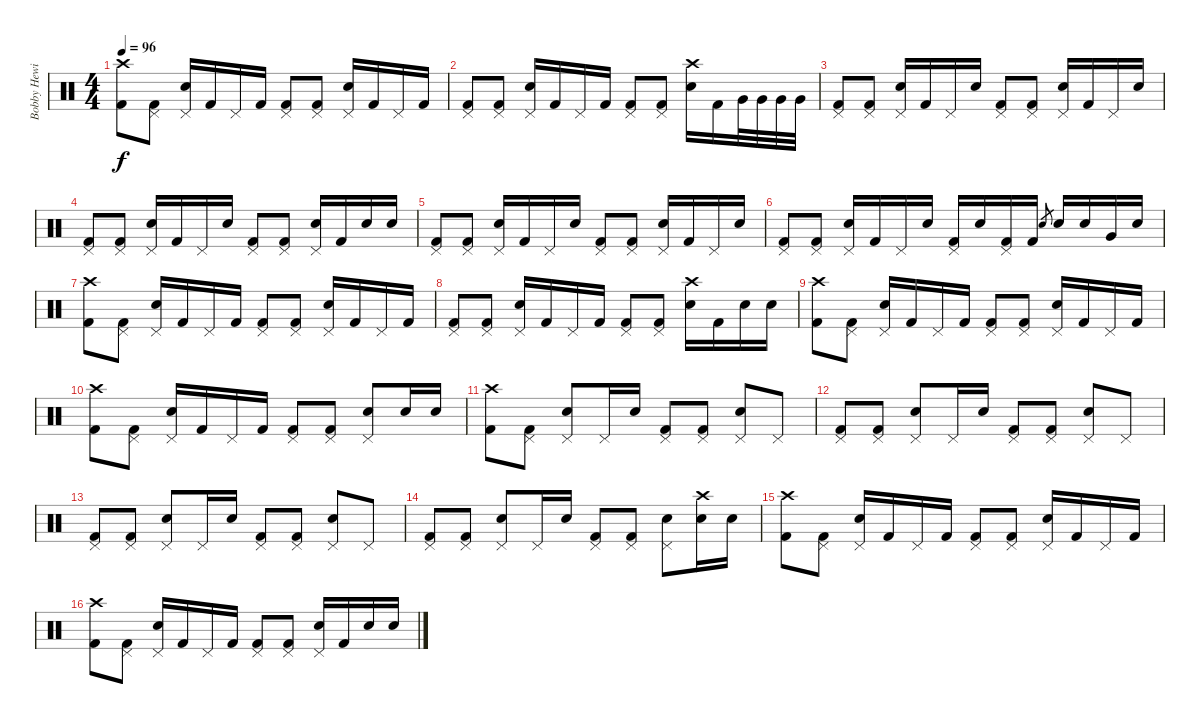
\track ("Bobby Hewitt (Elec. Drums)" "Bobby Hewi") {instrument percussion}
\staff {score}
\articulation defaults
\ts (4 4)
\tempo 96
\clef neutral
\ks c
("Crash high (hit)" "Kick (hit) 2").8{dy f} ("Pedal Hi-Hat (hit)" "Kick (hit) 2").8 ("Pedal Hi-Hat (hit)" "Electric Snare (hit)").16 "Kick (hit) 2".16 "Pedal Hi-Hat (hit)".16 "Kick (hit) 2".16 ("Pedal Hi-Hat (hit)" "Kick (hit) 2").8 ("Pedal Hi-Hat (hit)" "Kick (hit) 2").8 ("Pedal Hi-Hat (hit)" "Electric Snare (hit)").16 "Kick (hit) 2".16 "Pedal Hi-Hat (hit)".16 "Kick (hit) 2".16 |
("Pedal Hi-Hat (hit)" "Kick (hit) 2").8 ("Pedal Hi-Hat (hit)" "Kick (hit) 2").8 ("Pedal Hi-Hat (hit)" "Electric Snare (hit)").16 "Kick (hit) 2".16 "Pedal Hi-Hat (hit)".16 "Kick (hit) 2".16 ("Pedal Hi-Hat (hit)" "Kick (hit) 2").8 ("Pedal Hi-Hat (hit)" "Kick (hit) 2").8 ("Crash high (hit)" "Electric Snare (hit)").16 "Kick (hit) 2".16 "Very Low Tom (hit)".32 "Very Low Tom (hit)".32 "Very Low Tom (hit)".32 "Very Low Tom (hit)".32 |
("Pedal Hi-Hat (hit)" "Kick (hit) 2").8 ("Pedal Hi-Hat (hit)" "Kick (hit) 2").8 ("Pedal Hi-Hat (hit)" "Electric Snare (hit)").16 "Kick (hit) 2".16 "Pedal Hi-Hat (hit)".16 "Electric Snare (hit)".16 ("Pedal Hi-Hat (hit)" "Kick (hit) 2").8 ("Pedal Hi-Hat (hit)" "Kick (hit) 2").8 ("Pedal Hi-Hat (hit)" "Electric Snare (hit)").16 "Kick (hit) 2".16 "Pedal Hi-Hat (hit)".16 "Electric Snare (hit)".16 |
("Pedal Hi-Hat (hit)" "Kick (hit) 2").8 ("Pedal Hi-Hat (hit)" "Kick (hit) 2").8 ("Pedal Hi-Hat (hit)" "Electric Snare (hit)").16 "Kick (hit) 2".16 "Pedal Hi-Hat (hit)".16 "Electric Snare (hit)".16 ("Pedal Hi-Hat (hit)" "Kick (hit) 2").8 ("Pedal Hi-Hat (hit)" "Kick (hit) 2").8 ("Pedal Hi-Hat (hit)" "Electric Snare (hit)").16 "Kick (hit) 2".16 "Electric Snare (hit)".16 "Electric Snare (hit)".16 |
("Pedal Hi-Hat (hit)" "Kick (hit) 2").8 ("Pedal Hi-Hat (hit)" "Kick (hit) 2").8 ("Pedal Hi-Hat (hit)" "Electric Snare (hit)").16 "Kick (hit) 2".16 "Pedal Hi-Hat (hit)".16 "Electric Snare (hit)".16 ("Pedal Hi-Hat (hit)" "Kick (hit) 2").8 ("Pedal Hi-Hat (hit)" "Kick (hit) 2").8 ("Pedal Hi-Hat (hit)" "Electric Snare (hit)").16 "Kick (hit) 2".16 "Pedal Hi-Hat (hit)".16 "Electric Snare (hit)".16 |
("Pedal Hi-Hat (hit)" "Kick (hit) 2").8 ("Pedal Hi-Hat (hit)" "Kick (hit) 2").8 ("Pedal Hi-Hat (hit)" "Electric Snare (hit)").16 "Kick (hit) 2".16 "Pedal Hi-Hat (hit)".16 "Electric Snare (hit)".16 ("Pedal Hi-Hat (hit)" "Kick (hit) 2").16 "Electric Snare (hit)".16 ("Pedal Hi-Hat (hit)" "Kick (hit) 2").16 "Kick (hit) 2".16 "Electric Snare (hit)".8{gr} "Electric Snare (hit)".16 "Electric Snare (hit)".16 "Very Low Tom (hit)".16 "Electric Snare (hit)".16 |
("Crash high (hit)" "Kick (hit) 2").8 ("Pedal Hi-Hat (hit)" "Kick (hit) 2").8 ("Pedal Hi-Hat (hit)" "Electric Snare (hit)").16 "Kick (hit) 2".16 "Pedal Hi-Hat (hit)".16 "Kick (hit) 2".16 ("Pedal Hi-Hat (hit)" "Kick (hit) 2").8 ("Pedal Hi-Hat (hit)" "Kick (hit) 2").8 ("Pedal Hi-Hat (hit)" "Electric Snare (hit)").16 "Kick (hit) 2".16 "Pedal Hi-Hat (hit)".16 "Kick (hit) 2".16 |
("Pedal Hi-Hat (hit)" "Kick (hit) 2").8 ("Pedal Hi-Hat (hit)" "Kick (hit) 2").8 ("Pedal Hi-Hat (hit)" "Electric Snare (hit)").16 "Kick (hit) 2".16 "Pedal Hi-Hat (hit)".16 "Kick (hit) 2".16 ("Pedal Hi-Hat (hit)" "Kick (hit) 2").8 ("Pedal Hi-Hat (hit)" "Kick (hit) 2").8 ("Crash high (hit)" "Electric Snare (hit)").16 "Kick (hit) 2".16 "Electric Snare (hit)".16 "Electric Snare (hit)".16 |
("Crash high (hit)" "Kick (hit) 2").8 ("Pedal Hi-Hat (hit)" "Kick (hit) 2").8 ("Pedal Hi-Hat (hit)" "Electric Snare (hit)").16 "Kick (hit) 2".16 "Pedal Hi-Hat (hit)".16 "Kick (hit) 2".16 ("Pedal Hi-Hat (hit)" "Kick (hit) 2").8 ("Pedal Hi-Hat (hit)" "Kick (hit) 2").8 ("Pedal Hi-Hat (hit)" "Electric Snare (hit)").16 "Kick (hit) 2".16 "Pedal Hi-Hat (hit)".16 "Kick (hit) 2".16 |
("Crash high (hit)" "Kick (hit) 2").8 ("Pedal Hi-Hat (hit)" "Kick (hit) 2").8 ("Pedal Hi-Hat (hit)" "Electric Snare (hit)").16 "Kick (hit) 2".16 "Pedal Hi-Hat (hit)".16 "Kick (hit) 2".16 ("Pedal Hi-Hat (hit)" "Kick (hit) 2").8 ("Pedal Hi-Hat (hit)" "Kick (hit) 2").8 ("Pedal Hi-Hat (hit)" "Electric Snare (hit)").8 "Electric Snare (hit)".16 "Electric Snare (hit)".16 |
("Crash high (hit)" "Kick (hit) 2").8 ("Pedal Hi-Hat (hit)" "Kick (hit) 2").8 ("Pedal Hi-Hat (hit)" "Electric Snare (hit)").8 "Pedal Hi-Hat (hit)".16 "Electric Snare (hit)".16 ("Pedal Hi-Hat (hit)" "Kick (hit) 2").8 ("Pedal Hi-Hat (hit)" "Kick (hit) 2").8 ("Pedal Hi-Hat (hit)" "Electric Snare (hit)").8 "Pedal Hi-Hat (hit)".8 |
("Pedal Hi-Hat (hit)" "Kick (hit) 2").8 ("Pedal Hi-Hat (hit)" "Kick (hit) 2").8 ("Pedal Hi-Hat (hit)" "Electric Snare (hit)").8 "Pedal Hi-Hat (hit)".16 "Electric Snare (hit)".16 ("Pedal Hi-Hat (hit)" "Kick (hit) 2").8 ("Pedal Hi-Hat (hit)" "Kick (hit) 2").8 ("Pedal Hi-Hat (hit)" "Electric Snare (hit)").8 "Pedal Hi-Hat (hit)".8 |
("Pedal Hi-Hat (hit)" "Kick (hit) 2").8 ("Pedal Hi-Hat (hit)" "Kick (hit) 2").8 ("Pedal Hi-Hat (hit)" "Electric Snare (hit)").8 "Pedal Hi-Hat (hit)".16 "Electric Snare (hit)".16 ("Pedal Hi-Hat (hit)" "Kick (hit) 2").8 ("Pedal Hi-Hat (hit)" "Kick (hit) 2").8 ("Pedal Hi-Hat (hit)" "Electric Snare (hit)").8 "Pedal Hi-Hat (hit)".8 |
("Pedal Hi-Hat (hit)" "Kick (hit) 2").8 ("Pedal Hi-Hat (hit)" "Kick (hit) 2").8 ("Pedal Hi-Hat (hit)" "Electric Snare (hit)").8 "Pedal Hi-Hat (hit)".16 "Electric Snare (hit)".16 ("Pedal Hi-Hat (hit)" "Kick (hit) 2").8 ("Pedal Hi-Hat (hit)" "Kick (hit) 2").8 ("Pedal Hi-Hat (hit)" "Electric Snare (hit)").8 ("Crash high (hit)" "Electric Snare (hit)").16 "Electric Snare (hit)".16 |
("Crash high (hit)" "Kick (hit) 2").8 ("Pedal Hi-Hat (hit)" "Kick (hit) 2").8 ("Pedal Hi-Hat (hit)" "Electric Snare (hit)").16 "Kick (hit) 2".16 "Pedal Hi-Hat (hit)".16 "Kick (hit) 2".16 ("Pedal Hi-Hat (hit)" "Kick (hit) 2").8 ("Pedal Hi-Hat (hit)" "Kick (hit) 2").8 ("Pedal Hi-Hat (hit)" "Electric Snare (hit)").16 "Kick (hit) 2".16 "Pedal Hi-Hat (hit)".16 "Kick (hit) 2".16 |
("Crash high (hit)" "Kick (hit) 2").8 ("Pedal Hi-Hat (hit)" "Kick (hit) 2").8 ("Pedal Hi-Hat (hit)" "Electric Snare (hit)").16 "Kick (hit) 2".16 "Pedal Hi-Hat (hit)".16 "Kick (hit) 2".16 ("Pedal Hi-Hat (hit)" "Kick (hit) 2").8 ("Pedal Hi-Hat (hit)" "Kick (hit) 2").8 ("Pedal Hi-Hat (hit)" "Electric Snare (hit)").16 "Kick (hit) 2".16 "Electric Snare (hit)".16 "Electric Snare (hit)".16
